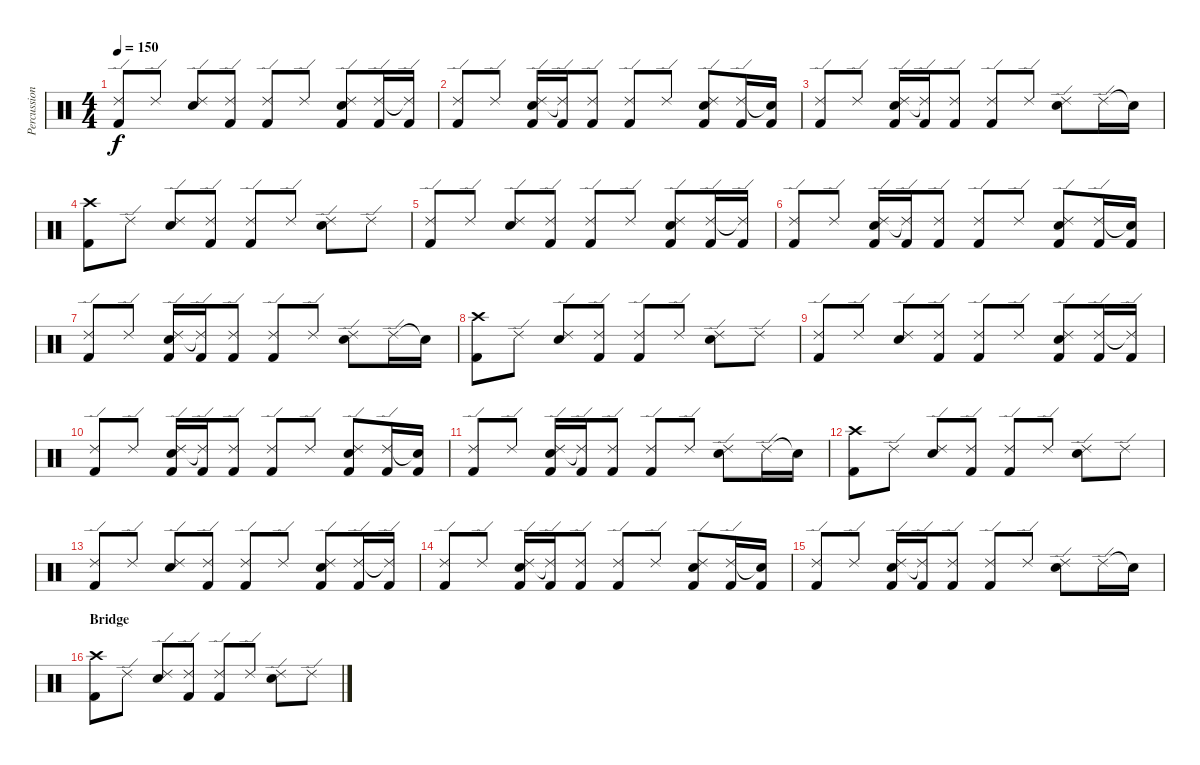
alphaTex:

\track ("Percussion" "Percussion") {instrument percussion}
\staff {score}
\articulation defaults
\ts (4 4)
\tempo 150
\clef neutral
\ks c
("Ride (edge) 2" "Kick (hit) 2").8{dy f} "Ride (edge) 2".8 ("Ride (edge) 2" "Electric Snare (hit)").8 ("Ride (edge) 2" "Kick (hit) 2").8 ("Ride (edge) 2" "Kick (hit) 2").8 "Ride (edge) 2".8 ("Electric Snare (hit)" "Ride (edge) 2" "Kick (hit) 2").8 ("Ride (edge) 2" "Kick (hit) 2").16 ("Ride (edge) 2"{t} "Kick (hit) 2").16 |
("Ride (edge) 2" "Kick (hit) 2").8 "Ride (edge) 2".8 ("Electric Snare (hit)" "Ride (edge) 2" "Kick (hit) 2").16 ("Ride (edge) 2"{t} "Kick (hit) 2").16 ("Ride (edge) 2" "Kick (hit) 2").8 ("Ride (edge) 2" "Kick (hit) 2").8 "Ride (edge) 2".8 ("Electric Snare (hit)" "Ride (edge) 2" "Kick (hit) 2").8 ("Ride (edge) 2" "Kick (hit) 2").16 ("Snare (hit)"{t} "Kick (hit) 2").16 |
("Ride (edge) 2" "Kick (hit) 2").8 "Ride (edge) 2".8 ("Electric Snare (hit)" "Ride (edge) 2" "Kick (hit) 2").16 ("Ride (edge) 2"{t} "Kick (hit) 2").16 ("Ride (edge) 2" "Kick (hit) 2").8 ("Ride (edge) 2" "Kick (hit) 2").8 "Ride (edge) 2".8 ("Electric Snare (hit)" "Ride (edge) 2").8 "Ride (edge) 2".16 "Snare (hit)"{t}.16 |
("Crash high (hit)" "Kick (hit) 2").8 "Ride (edge) 2".8 ("Ride (edge) 2" "Electric Snare (hit)").8 ("Ride (edge) 2" "Kick (hit) 2").8 ("Ride (edge) 2" "Kick (hit) 2").8 "Ride (edge) 2".8 ("Ride (edge) 2" "Electric Snare (hit)").8 "Ride (edge) 2".8 |
("Ride (edge) 2" "Kick (hit) 2").8 "Ride (edge) 2".8 ("Ride (edge) 2" "Electric Snare (hit)").8 ("Ride (edge) 2" "Kick (hit) 2").8 ("Ride (edge) 2" "Kick (hit) 2").8 "Ride (edge) 2".8 ("Electric Snare (hit)" "Ride (edge) 2" "Kick (hit) 2").8 ("Ride (edge) 2" "Kick (hit) 2").16 ("Ride (edge) 2"{t} "Kick (hit) 2").16 |
("Ride (edge) 2" "Kick (hit) 2").8 "Ride (edge) 2".8 ("Electric Snare (hit)" "Ride (edge) 2" "Kick (hit) 2").16 ("Ride (edge) 2"{t} "Kick (hit) 2").16 ("Ride (edge) 2" "Kick (hit) 2").8 ("Ride (edge) 2" "Kick (hit) 2").8 "Ride (edge) 2".8 ("Electric Snare (hit)" "Ride (edge) 2" "Kick (hit) 2").8 ("Ride (edge) 2" "Kick (hit) 2").16 ("Snare (hit)"{t} "Kick (hit) 2").16 |
("Ride (edge) 2" "Kick (hit) 2").8 "Ride (edge) 2".8 ("Electric Snare (hit)" "Ride (edge) 2" "Kick (hit) 2").16 ("Ride (edge) 2"{t} "Kick (hit) 2").16 ("Ride (edge) 2" "Kick (hit) 2").8 ("Ride (edge) 2" "Kick (hit) 2").8 "Ride (edge) 2".8 ("Electric Snare (hit)" "Ride (edge) 2").8 "Ride (edge) 2".16 "Snare (hit)"{t}.16 |
("Crash high (hit)" "Kick (hit) 2").8 "Ride (edge) 2".8 ("Ride (edge) 2" "Electric Snare (hit)").8 ("Ride (edge) 2" "Kick (hit) 2").8 ("Ride (edge) 2" "Kick (hit) 2").8 "Ride (edge) 2".8 ("Ride (edge) 2" "Electric Snare (hit)").8 "Ride (edge) 2".8 |
("Ride (edge) 2" "Kick (hit) 2").8 "Ride (edge) 2".8 ("Ride (edge) 2" "Electric Snare (hit)").8 ("Ride (edge) 2" "Kick (hit) 2").8 ("Ride (edge) 2" "Kick (hit) 2").8 "Ride (edge) 2".8 ("Electric Snare (hit)" "Ride (edge) 2" "Kick (hit) 2").8 ("Ride (edge) 2" "Kick (hit) 2").16 ("Ride (edge) 2"{t} "Kick (hit) 2").16 |
("Ride (edge) 2" "Kick (hit) 2").8 "Ride (edge) 2".8 ("Electric Snare (hit)" "Ride (edge) 2" "Kick (hit) 2").16 ("Ride (edge) 2"{t} "Kick (hit) 2").16 ("Ride (edge) 2" "Kick (hit) 2").8 ("Ride (edge) 2" "Kick (hit) 2").8 "Ride (edge) 2".8 ("Electric Snare (hit)" "Ride (edge) 2" "Kick (hit) 2").8 ("Ride (edge) 2" "Kick (hit) 2").16 ("Snare (hit)"{t} "Kick (hit) 2").16 |
("Ride (edge) 2" "Kick (hit) 2").8 "Ride (edge) 2".8 ("Electric Snare (hit)" "Ride (edge) 2" "Kick (hit) 2").16 ("Ride (edge) 2"{t} "Kick (hit) 2").16 ("Ride (edge) 2" "Kick (hit) 2").8 ("Ride (edge) 2" "Kick (hit) 2").8 "Ride (edge) 2".8 ("Electric Snare (hit)" "Ride (edge) 2").8 "Ride (edge) 2".16 "Snare (hit)"{t}.16 |
("Crash high (hit)" "Kick (hit) 2").8 "Ride (edge) 2".8 ("Ride (edge) 2" "Electric Snare (hit)").8 ("Ride (edge) 2" "Kick (hit) 2").8 ("Ride (edge) 2" "Kick (hit) 2").8 "Ride (edge) 2".8 ("Ride (edge) 2" "Electric Snare (hit)").8 "Ride (edge) 2".8 |
("Ride (edge) 2" "Kick (hit) 2").8 "Ride (edge) 2".8 ("Ride (edge) 2" "Electric Snare (hit)").8 ("Ride (edge) 2" "Kick (hit) 2").8 ("Ride (edge) 2" "Kick (hit) 2").8 "Ride (edge) 2".8 ("Electric Snare (hit)" "Ride (edge) 2" "Kick (hit) 2").8 ("Ride (edge) 2" "Kick (hit) 2").16 ("Ride (edge) 2"{t} "Kick (hit) 2").16 |
("Ride (edge) 2" "Kick (hit) 2").8 "Ride (edge) 2".8 ("Electric Snare (hit)" "Ride (edge) 2" "Kick (hit) 2").16 ("Ride (edge) 2"{t} "Kick (hit) 2").16 ("Ride (edge) 2" "Kick (hit) 2").8 ("Ride (edge) 2" "Kick (hit) 2").8 "Ride (edge) 2".8 ("Electric Snare (hit)" "Ride (edge) 2" "Kick (hit) 2").8 ("Ride (edge) 2" "Kick (hit) 2").16 ("Snare (hit)"{t} "Kick (hit) 2").16 |
("Ride (edge) 2" "Kick (hit) 2").8 "Ride (edge) 2".8 ("Electric Snare (hit)" "Ride (edge) 2" "Kick (hit) 2").16 ("Ride (edge) 2"{t} "Kick (hit) 2").16 ("Ride (edge) 2" "Kick (hit) 2").8 ("Ride (edge) 2" "Kick (hit) 2").8 "Ride (edge) 2".8 ("Electric Snare (hit)" "Ride (edge) 2").8 "Ride (edge) 2".16 "Snare (hit)"{t}.16 |
\section ("" "Bridge")
("Crash high (hit)" "Kick (hit) 2").8 "Ride (edge) 2".8 ("Ride (edge) 2" "Electric Snare (hit)").8 ("Ride (edge) 2" "Kick (hit) 2").8 ("Ride (edge) 2" "Kick (hit) 2").8 "Ride (edge) 2".8 ("Ride (edge) 2" "Electric Snare (hit)").8 "Ride (edge) 2".8
